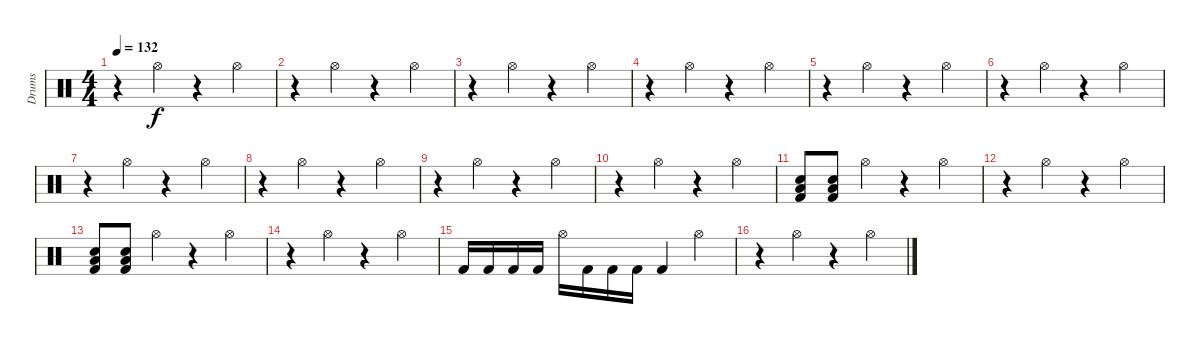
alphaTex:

\track ("Drums" "Drums") {instrument percussion}
\staff {score}
\articulation defaults
\ts (4 4)
\tempo 132
\clef neutral
\ks c
r.4{dy f} "Hi-Hat (open)".4 r.4 "Hi-Hat (open)".4 |
r.4 "Hi-Hat (open)".4 r.4 "Hi-Hat (open)".4 |
r.4 "Hi-Hat (open)".4 r.4 "Hi-Hat (open)".4 |
r.4 "Hi-Hat (open)".4 r.4 "Hi-Hat (open)".4 |
r.4 "Hi-Hat (open)".4 r.4 "Hi-Hat (open)".4 |
r.4 "Hi-Hat (open)".4 r.4 "Hi-Hat (open)".4 |
r.4 "Hi-Hat (open)".4 r.4 "Hi-Hat (open)".4 |
r.4 "Hi-Hat (open)".4 r.4 "Hi-Hat (open)".4 |
r.4 "Hi-Hat (open)".4 r.4 "Hi-Hat (open)".4 |
r.4 "Hi-Hat (open)".4 r.4 "Hi-Hat (open)".4 |
("Low Floor Tom (hit)" "Electric Snare (hit)" "Kick (hit) 2").8 ("Low Floor Tom (hit)" "Electric Snare (hit)" "Kick (hit) 2").8 "Hi-Hat (open)".4 r.4 "Hi-Hat (open)".4 |
r.4 "Hi-Hat (open)".4 r.4 "Hi-Hat (open)".4 |
("Low Floor Tom (hit)" "Electric Snare (hit)" "Kick (hit) 2").8 ("Low Floor Tom (hit)" "Electric Snare (hit)" "Kick (hit) 2").8 "Hi-Hat (open)".4 r.4 "Hi-Hat (open)".4 |
r.4 "Hi-Hat (open)".4 r.4 "Hi-Hat (open)".4 |
"Kick (hit) 2".16 "Kick (hit) 2".16 "Kick (hit) 2".16 "Kick (hit) 2".16 "Hi-Hat (open)".16 "Kick (hit) 2".16 "Kick (hit) 2".16 "Kick (hit) 2".16 "Kick (hit) 2".4 "Hi-Hat (open)".4 |
r.4 "Hi-Hat (open)".4 r.4 "Hi-Hat (open)".4
